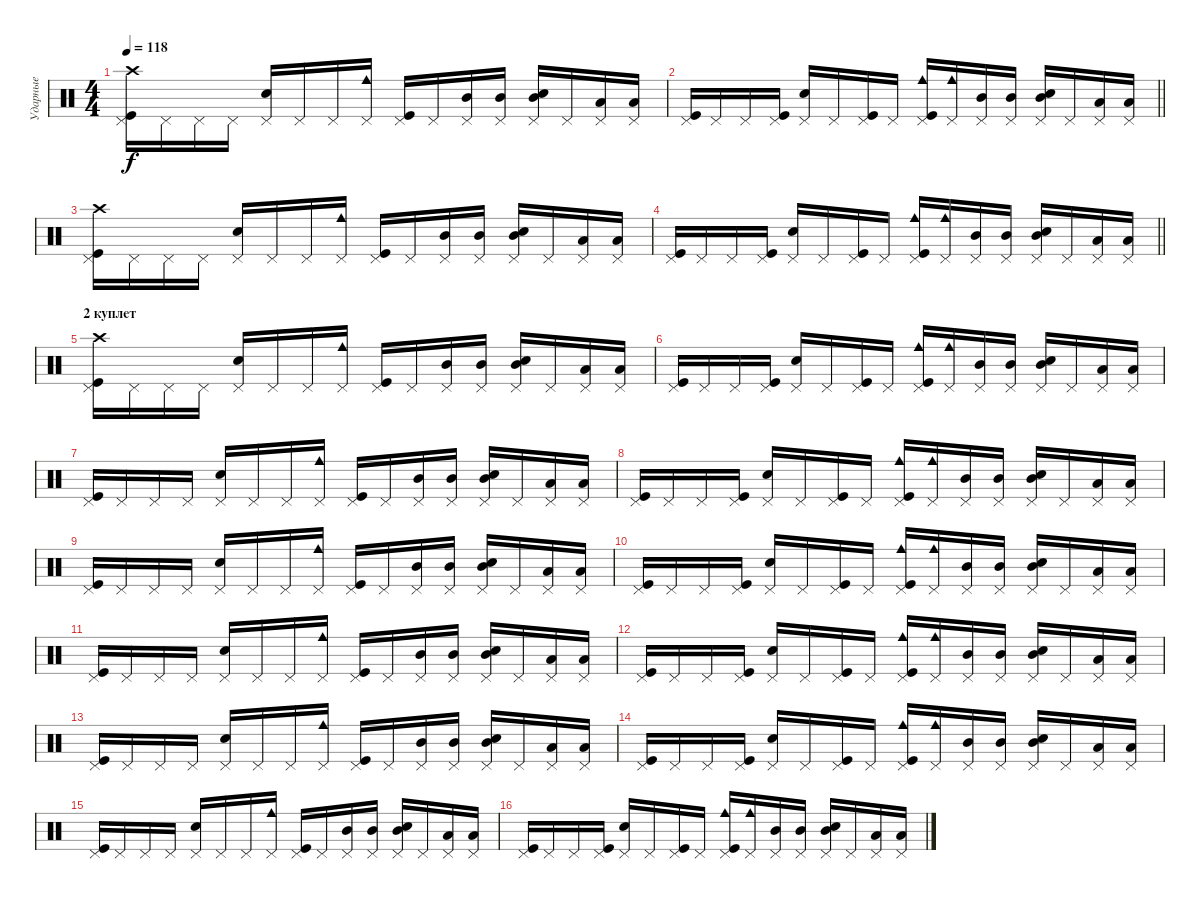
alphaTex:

\track ("Ударные" "Ударные") {instrument percussion}
\staff {score}
\articulation defaults
\ts (4 4)
\tempo 118
\clef neutral
\ks c
("Pedal Hi-Hat (hit)" "Kick (hit)" "Crash high (hit)").16{dy f} "Pedal Hi-Hat (hit)".16 "Pedal Hi-Hat (hit)".16 "Pedal Hi-Hat (hit)".16 ("Pedal Hi-Hat (hit)" "Snare (hit) 2").16 "Pedal Hi-Hat (hit)".16 "Pedal Hi-Hat (hit)".16 ("Pedal Hi-Hat (hit)" "Cowbell medium (hit)").16 ("Pedal Hi-Hat (hit)" "Kick (hit)").16 "Pedal Hi-Hat (hit)".16 ("Pedal Hi-Hat (hit)" "Mid Tom (hit)").16 ("Pedal Hi-Hat (hit)" "Mid Tom (hit)").16 ("Pedal Hi-Hat (hit)" "Mid Tom (hit)" "Snare (hit) 2").16 "Pedal Hi-Hat (hit)".16 ("Pedal Hi-Hat (hit)" "Low Tom (hit)").16 ("Pedal Hi-Hat (hit)" "Low Tom (hit)").16 |
\barLineRight lightlight
("Pedal Hi-Hat (hit)" "Kick (hit)").16 "Pedal Hi-Hat (hit)".16 "Pedal Hi-Hat (hit)".16 ("Pedal Hi-Hat (hit)" "Kick (hit)").16 ("Pedal Hi-Hat (hit)" "Snare (hit) 2").16 "Pedal Hi-Hat (hit)".16 ("Pedal Hi-Hat (hit)" "Kick (hit)").16 "Pedal Hi-Hat (hit)".16 ("Pedal Hi-Hat (hit)" "Kick (hit)" "Cowbell medium (hit)").16 ("Pedal Hi-Hat (hit)" "Cowbell medium (hit)").16 ("Pedal Hi-Hat (hit)" "Mid Tom (hit)").16 ("Pedal Hi-Hat (hit)" "Mid Tom (hit)").16 ("Pedal Hi-Hat (hit)" "Mid Tom (hit)" "Snare (hit) 2").16 "Pedal Hi-Hat (hit)".16 ("Pedal Hi-Hat (hit)" "Low Tom (hit)").16 ("Pedal Hi-Hat (hit)" "Low Tom (hit)").16 |
("Pedal Hi-Hat (hit)" "Kick (hit)" "Crash high (hit)").16 "Pedal Hi-Hat (hit)".16 "Pedal Hi-Hat (hit)".16 "Pedal Hi-Hat (hit)".16 ("Pedal Hi-Hat (hit)" "Snare (hit) 2").16 "Pedal Hi-Hat (hit)".16 "Pedal Hi-Hat (hit)".16 ("Pedal Hi-Hat (hit)" "Cowbell medium (hit)").16 ("Pedal Hi-Hat (hit)" "Kick (hit)").16 "Pedal Hi-Hat (hit)".16 ("Pedal Hi-Hat (hit)" "Mid Tom (hit)").16 ("Pedal Hi-Hat (hit)" "Mid Tom (hit)").16 ("Pedal Hi-Hat (hit)" "Mid Tom (hit)" "Snare (hit) 2").16 "Pedal Hi-Hat (hit)".16 ("Pedal Hi-Hat (hit)" "Low Tom (hit)").16 ("Pedal Hi-Hat (hit)" "Low Tom (hit)").16 |
\barLineRight lightlight
("Pedal Hi-Hat (hit)" "Kick (hit)").16 "Pedal Hi-Hat (hit)".16 "Pedal Hi-Hat (hit)".16 ("Pedal Hi-Hat (hit)" "Kick (hit)").16 ("Pedal Hi-Hat (hit)" "Snare (hit) 2").16 "Pedal Hi-Hat (hit)".16 ("Pedal Hi-Hat (hit)" "Kick (hit)").16 "Pedal Hi-Hat (hit)".16 ("Pedal Hi-Hat (hit)" "Kick (hit)" "Cowbell medium (hit)").16 ("Pedal Hi-Hat (hit)" "Cowbell medium (hit)").16 ("Pedal Hi-Hat (hit)" "Mid Tom (hit)").16 ("Pedal Hi-Hat (hit)" "Mid Tom (hit)").16 ("Pedal Hi-Hat (hit)" "Mid Tom (hit)" "Snare (hit) 2").16 "Pedal Hi-Hat (hit)".16 ("Pedal Hi-Hat (hit)" "Low Tom (hit)").16 ("Pedal Hi-Hat (hit)" "Low Tom (hit)").16 |
\section ("" "2 куплет")
("Pedal Hi-Hat (hit)" "Kick (hit)" "Crash high (hit)").16 "Pedal Hi-Hat (hit)".16 "Pedal Hi-Hat (hit)".16 "Pedal Hi-Hat (hit)".16 ("Pedal Hi-Hat (hit)" "Snare (hit) 2").16 "Pedal Hi-Hat (hit)".16 "Pedal Hi-Hat (hit)".16 ("Pedal Hi-Hat (hit)" "Cowbell medium (hit)").16 ("Pedal Hi-Hat (hit)" "Kick (hit)").16 "Pedal Hi-Hat (hit)".16 ("Pedal Hi-Hat (hit)" "Mid Tom (hit)").16 ("Pedal Hi-Hat (hit)" "Mid Tom (hit)").16 ("Pedal Hi-Hat (hit)" "Mid Tom (hit)" "Snare (hit) 2").16 "Pedal Hi-Hat (hit)".16 ("Pedal Hi-Hat (hit)" "Low Tom (hit)").16 ("Pedal Hi-Hat (hit)" "Low Tom (hit)").16 |
("Pedal Hi-Hat (hit)" "Kick (hit)").16 "Pedal Hi-Hat (hit)".16 "Pedal Hi-Hat (hit)".16 ("Pedal Hi-Hat (hit)" "Kick (hit)").16 ("Pedal Hi-Hat (hit)" "Snare (hit) 2").16 "Pedal Hi-Hat (hit)".16 ("Pedal Hi-Hat (hit)" "Kick (hit)").16 "Pedal Hi-Hat (hit)".16 ("Pedal Hi-Hat (hit)" "Kick (hit)" "Cowbell medium (hit)").16 ("Pedal Hi-Hat (hit)" "Cowbell medium (hit)").16 ("Pedal Hi-Hat (hit)" "Mid Tom (hit)").16 ("Pedal Hi-Hat (hit)" "Mid Tom (hit)").16 ("Pedal Hi-Hat (hit)" "Mid Tom (hit)" "Snare (hit) 2").16 "Pedal Hi-Hat (hit)".16 ("Pedal Hi-Hat (hit)" "Low Tom (hit)").16 ("Pedal Hi-Hat (hit)" "Low Tom (hit)").16 |
("Pedal Hi-Hat (hit)" "Kick (hit)").16 "Pedal Hi-Hat (hit)".16 "Pedal Hi-Hat (hit)".16 "Pedal Hi-Hat (hit)".16 ("Pedal Hi-Hat (hit)" "Snare (hit) 2").16 "Pedal Hi-Hat (hit)".16 "Pedal Hi-Hat (hit)".16 ("Pedal Hi-Hat (hit)" "Cowbell medium (hit)").16 ("Pedal Hi-Hat (hit)" "Kick (hit)").16 "Pedal Hi-Hat (hit)".16 ("Pedal Hi-Hat (hit)" "Mid Tom (hit)").16 ("Pedal Hi-Hat (hit)" "Mid Tom (hit)").16 ("Pedal Hi-Hat (hit)" "Mid Tom (hit)" "Snare (hit) 2").16 "Pedal Hi-Hat (hit)".16 ("Pedal Hi-Hat (hit)" "Low Tom (hit)").16 ("Pedal Hi-Hat (hit)" "Low Tom (hit)").16 |
("Pedal Hi-Hat (hit)" "Kick (hit)").16 "Pedal Hi-Hat (hit)".16 "Pedal Hi-Hat (hit)".16 ("Pedal Hi-Hat (hit)" "Kick (hit)").16 ("Pedal Hi-Hat (hit)" "Snare (hit) 2").16 "Pedal Hi-Hat (hit)".16 ("Pedal Hi-Hat (hit)" "Kick (hit)").16 "Pedal Hi-Hat (hit)".16 ("Pedal Hi-Hat (hit)" "Kick (hit)" "Cowbell medium (hit)").16 ("Pedal Hi-Hat (hit)" "Cowbell medium (hit)").16 ("Pedal Hi-Hat (hit)" "Mid Tom (hit)").16 ("Pedal Hi-Hat (hit)" "Mid Tom (hit)").16 ("Pedal Hi-Hat (hit)" "Mid Tom (hit)" "Snare (hit) 2").16 "Pedal Hi-Hat (hit)".16 ("Pedal Hi-Hat (hit)" "Low Tom (hit)").16 ("Pedal Hi-Hat (hit)" "Low Tom (hit)").16 |
("Pedal Hi-Hat (hit)" "Kick (hit)").16 "Pedal Hi-Hat (hit)".16 "Pedal Hi-Hat (hit)".16 "Pedal Hi-Hat (hit)".16 ("Pedal Hi-Hat (hit)" "Snare (hit) 2").16 "Pedal Hi-Hat (hit)".16 "Pedal Hi-Hat (hit)".16 ("Pedal Hi-Hat (hit)" "Cowbell medium (hit)").16 ("Pedal Hi-Hat (hit)" "Kick (hit)").16 "Pedal Hi-Hat (hit)".16 ("Pedal Hi-Hat (hit)" "Mid Tom (hit)").16 ("Pedal Hi-Hat (hit)" "Mid Tom (hit)").16 ("Pedal Hi-Hat (hit)" "Mid Tom (hit)" "Snare (hit) 2").16 "Pedal Hi-Hat (hit)".16 ("Pedal Hi-Hat (hit)" "Low Tom (hit)").16 ("Pedal Hi-Hat (hit)" "Low Tom (hit)").16 |
("Pedal Hi-Hat (hit)" "Kick (hit)").16 "Pedal Hi-Hat (hit)".16 "Pedal Hi-Hat (hit)".16 ("Pedal Hi-Hat (hit)" "Kick (hit)").16 ("Pedal Hi-Hat (hit)" "Snare (hit) 2").16 "Pedal Hi-Hat (hit)".16 ("Pedal Hi-Hat (hit)" "Kick (hit)").16 "Pedal Hi-Hat (hit)".16 ("Pedal Hi-Hat (hit)" "Kick (hit)" "Cowbell medium (hit)").16 ("Pedal Hi-Hat (hit)" "Cowbell medium (hit)").16 ("Pedal Hi-Hat (hit)" "Mid Tom (hit)").16 ("Pedal Hi-Hat (hit)" "Mid Tom (hit)").16 ("Pedal Hi-Hat (hit)" "Mid Tom (hit)" "Snare (hit) 2").16 "Pedal Hi-Hat (hit)".16 ("Pedal Hi-Hat (hit)" "Low Tom (hit)").16 ("Pedal Hi-Hat (hit)" "Low Tom (hit)").16 |
("Pedal Hi-Hat (hit)" "Kick (hit)").16 "Pedal Hi-Hat (hit)".16 "Pedal Hi-Hat (hit)".16 "Pedal Hi-Hat (hit)".16 ("Pedal Hi-Hat (hit)" "Snare (hit) 2").16 "Pedal Hi-Hat (hit)".16 "Pedal Hi-Hat (hit)".16 ("Pedal Hi-Hat (hit)" "Cowbell medium (hit)").16 ("Pedal Hi-Hat (hit)" "Kick (hit)").16 "Pedal Hi-Hat (hit)".16 ("Pedal Hi-Hat (hit)" "Mid Tom (hit)").16 ("Pedal Hi-Hat (hit)" "Mid Tom (hit)").16 ("Pedal Hi-Hat (hit)" "Mid Tom (hit)" "Snare (hit) 2").16 "Pedal Hi-Hat (hit)".16 ("Pedal Hi-Hat (hit)" "Low Tom (hit)").16 ("Pedal Hi-Hat (hit)" "Low Tom (hit)").16 |
("Pedal Hi-Hat (hit)" "Kick (hit)").16 "Pedal Hi-Hat (hit)".16 "Pedal Hi-Hat (hit)".16 ("Pedal Hi-Hat (hit)" "Kick (hit)").16 ("Pedal Hi-Hat (hit)" "Snare (hit) 2").16 "Pedal Hi-Hat (hit)".16 ("Pedal Hi-Hat (hit)" "Kick (hit)").16 "Pedal Hi-Hat (hit)".16 ("Pedal Hi-Hat (hit)" "Kick (hit)" "Cowbell medium (hit)").16 ("Pedal Hi-Hat (hit)" "Cowbell medium (hit)").16 ("Pedal Hi-Hat (hit)" "Mid Tom (hit)").16 ("Pedal Hi-Hat (hit)" "Mid Tom (hit)").16 ("Pedal Hi-Hat (hit)" "Mid Tom (hit)" "Snare (hit) 2").16 "Pedal Hi-Hat (hit)".16 ("Pedal Hi-Hat (hit)" "Low Tom (hit)").16 ("Pedal Hi-Hat (hit)" "Low Tom (hit)").16 |
("Pedal Hi-Hat (hit)" "Kick (hit)").16 "Pedal Hi-Hat (hit)".16 "Pedal Hi-Hat (hit)".16 "Pedal Hi-Hat (hit)".16 ("Pedal Hi-Hat (hit)" "Snare (hit) 2").16 "Pedal Hi-Hat (hit)".16 "Pedal Hi-Hat (hit)".16 ("Pedal Hi-Hat (hit)" "Cowbell medium (hit)").16 ("Pedal Hi-Hat (hit)" "Kick (hit)").16 "Pedal Hi-Hat (hit)".16 ("Pedal Hi-Hat (hit)" "Mid Tom (hit)").16 ("Pedal Hi-Hat (hit)" "Mid Tom (hit)").16 ("Pedal Hi-Hat (hit)" "Mid Tom (hit)" "Snare (hit) 2").16 "Pedal Hi-Hat (hit)".16 ("Pedal Hi-Hat (hit)" "Low Tom (hit)").16 ("Pedal Hi-Hat (hit)" "Low Tom (hit)").16 |
("Pedal Hi-Hat (hit)" "Kick (hit)").16 "Pedal Hi-Hat (hit)".16 "Pedal Hi-Hat (hit)".16 ("Pedal Hi-Hat (hit)" "Kick (hit)").16 ("Pedal Hi-Hat (hit)" "Snare (hit) 2").16 "Pedal Hi-Hat (hit)".16 ("Pedal Hi-Hat (hit)" "Kick (hit)").16 "Pedal Hi-Hat (hit)".16 ("Pedal Hi-Hat (hit)" "Kick (hit)" "Cowbell medium (hit)").16 ("Pedal Hi-Hat (hit)" "Cowbell medium (hit)").16 ("Pedal Hi-Hat (hit)" "Mid Tom (hit)").16 ("Pedal Hi-Hat (hit)" "Mid Tom (hit)").16 ("Pedal Hi-Hat (hit)" "Mid Tom (hit)" "Snare (hit) 2").16 "Pedal Hi-Hat (hit)".16 ("Pedal Hi-Hat (hit)" "Low Tom (hit)").16 ("Pedal Hi-Hat (hit)" "Low Tom (hit)").16 |
("Pedal Hi-Hat (hit)" "Kick (hit)").16 "Pedal Hi-Hat (hit)".16 "Pedal Hi-Hat (hit)".16 "Pedal Hi-Hat (hit)".16 ("Pedal Hi-Hat (hit)" "Snare (hit) 2").16 "Pedal Hi-Hat (hit)".16 "Pedal Hi-Hat (hit)".16 ("Pedal Hi-Hat (hit)" "Cowbell medium (hit)").16 ("Pedal Hi-Hat (hit)" "Kick (hit)").16 "Pedal Hi-Hat (hit)".16 ("Pedal Hi-Hat (hit)" "Mid Tom (hit)").16 ("Pedal Hi-Hat (hit)" "Mid Tom (hit)").16 ("Pedal Hi-Hat (hit)" "Mid Tom (hit)" "Snare (hit) 2").16 "Pedal Hi-Hat (hit)".16 ("Pedal Hi-Hat (hit)" "Low Tom (hit)").16 ("Pedal Hi-Hat (hit)" "Low Tom (hit)").16 |
("Pedal Hi-Hat (hit)" "Kick (hit)").16 "Pedal Hi-Hat (hit)".16 "Pedal Hi-Hat (hit)".16 ("Pedal Hi-Hat (hit)" "Kick (hit)").16 ("Pedal Hi-Hat (hit)" "Snare (hit) 2").16 "Pedal Hi-Hat (hit)".16 ("Pedal Hi-Hat (hit)" "Kick (hit)").16 "Pedal Hi-Hat (hit)".16 ("Pedal Hi-Hat (hit)" "Kick (hit)" "Cowbell medium (hit)").16 ("Pedal Hi-Hat (hit)" "Cowbell medium (hit)").16 ("Pedal Hi-Hat (hit)" "Mid Tom (hit)").16 ("Pedal Hi-Hat (hit)" "Mid Tom (hit)").16 ("Pedal Hi-Hat (hit)" "Mid Tom (hit)" "Snare (hit) 2").16 "Pedal Hi-Hat (hit)".16 ("Pedal Hi-Hat (hit)" "Low Tom (hit)").16 ("Pedal Hi-Hat (hit)" "Low Tom (hit)").16
